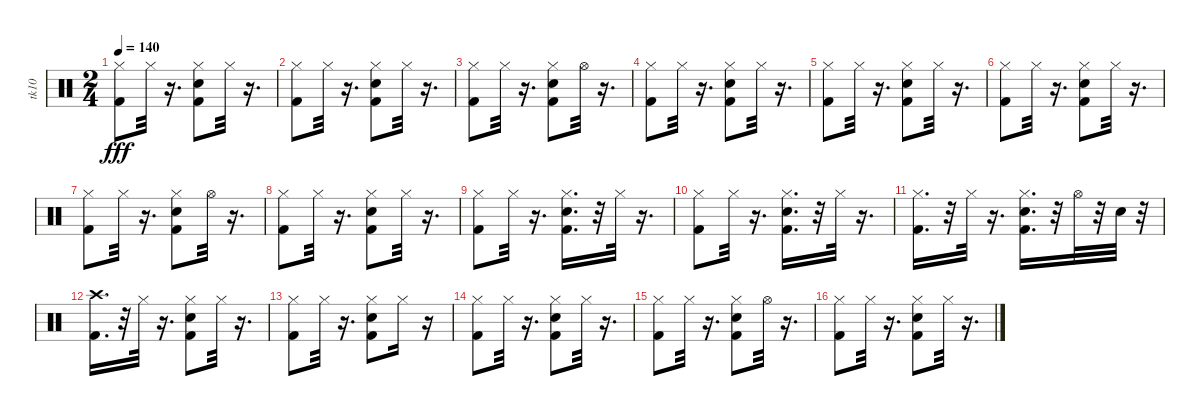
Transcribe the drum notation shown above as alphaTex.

\track ("tk10" "tk10") {instrument percussion}
\staff {score}
\articulation defaults
\ts (2 4)
\tempo 140
\clef neutral
\ks c
("Kick (hit) 2" "Hi-Hat (closed)").8{dy fff} "Hi-Hat (closed)".32 r.16{d} ("Snare (hit) 2" "Kick (hit) 2" "Hi-Hat (closed)").8 "Hi-Hat (closed)".32 r.16{d} |
("Kick (hit) 2" "Hi-Hat (closed)").8 "Hi-Hat (closed)".32 r.16{d} ("Snare (hit) 2" "Kick (hit) 2" "Hi-Hat (closed)").8 "Hi-Hat (closed)".32 r.16{d} |
("Kick (hit) 2" "Hi-Hat (closed)").8 "Hi-Hat (closed)".32 r.16{d} ("Hi-Hat (closed)" "Snare (hit) 2" "Kick (hit) 2").8 "Hi-Hat (open)".32 r.16{d} |
("Kick (hit) 2" "Hi-Hat (closed)").8 "Hi-Hat (closed)".32 r.16{d} ("Snare (hit) 2" "Kick (hit) 2" "Hi-Hat (closed)").8 "Hi-Hat (closed)".32 r.16{d} |
("Kick (hit) 2" "Hi-Hat (closed)").8 "Hi-Hat (closed)".32 r.16{d} ("Snare (hit) 2" "Kick (hit) 2" "Hi-Hat (closed)").8 "Hi-Hat (closed)".32 r.16{d} |
("Kick (hit) 2" "Hi-Hat (closed)").8 "Hi-Hat (closed)".32 r.16{d} ("Snare (hit) 2" "Kick (hit) 2" "Hi-Hat (closed)").8 "Hi-Hat (closed)".32 r.16{d} |
("Kick (hit) 2" "Hi-Hat (closed)").8 "Hi-Hat (closed)".32 r.16{d} ("Snare (hit) 2" "Kick (hit) 2" "Hi-Hat (closed)").8 "Hi-Hat (open)".32 r.16{d} |
("Kick (hit) 2" "Hi-Hat (closed)").8 "Hi-Hat (closed)".32 r.16{d} ("Snare (hit) 2" "Kick (hit) 2" "Hi-Hat (closed)").8 "Hi-Hat (closed)".32 r.16{d} |
("Kick (hit) 2" "Hi-Hat (closed)").8 "Hi-Hat (closed)".32 r.16{d} ("Snare (hit) 2" "Kick (hit) 2" "Hi-Hat (closed)").16{d} r.32 "Hi-Hat (closed)".32 r.16{d} |
("Kick (hit) 2" "Hi-Hat (closed)").8 "Hi-Hat (closed)".32 r.16{d} ("Snare (hit) 2" "Kick (hit) 2" "Hi-Hat (closed)").16{d} r.32 "Hi-Hat (closed)".32 r.16{d} |
("Kick (hit) 2" "Hi-Hat (closed)").16{d} r.32 "Hi-Hat (closed)".32 r.16{d} ("Snare (hit) 2" "Kick (hit) 2" "Hi-Hat (closed)").16{d} r.32 "Hi-Hat (open)".32 r.32 "Snare (hit) 2".32 r.32 |
("Kick (hit) 2" "Crash high (hit)").16{d} r.32 "Hi-Hat (closed)".32 r.16{d} ("Snare (hit) 2" "Hi-Hat (closed)" "Kick (hit) 2").8 "Hi-Hat (closed)".32 r.16{d} |
("Kick (hit) 2" "Hi-Hat (closed)").8 "Hi-Hat (closed)".32 r.16{d} ("Snare (hit) 2" "Kick (hit) 2" "Hi-Hat (closed)").8 "Hi-Hat (closed)".16 r.16 |
("Kick (hit) 2" "Hi-Hat (closed)").8 "Hi-Hat (closed)".32 r.16{d} ("Snare (hit) 2" "Kick (hit) 2" "Hi-Hat (closed)").8 "Hi-Hat (closed)".32 r.16{d} |
("Kick (hit) 2" "Hi-Hat (closed)").8 "Hi-Hat (closed)".32 r.16{d} ("Kick (hit) 2" "Snare (hit) 2" "Hi-Hat (closed)").8 "Hi-Hat (open)".32 r.16{d} |
("Kick (hit) 2" "Hi-Hat (closed)").8 "Hi-Hat (closed)".32 r.16{d} ("Hi-Hat (closed)" "Snare (hit) 2" "Kick (hit) 2").8 "Hi-Hat (closed)".32 r.16{d}
